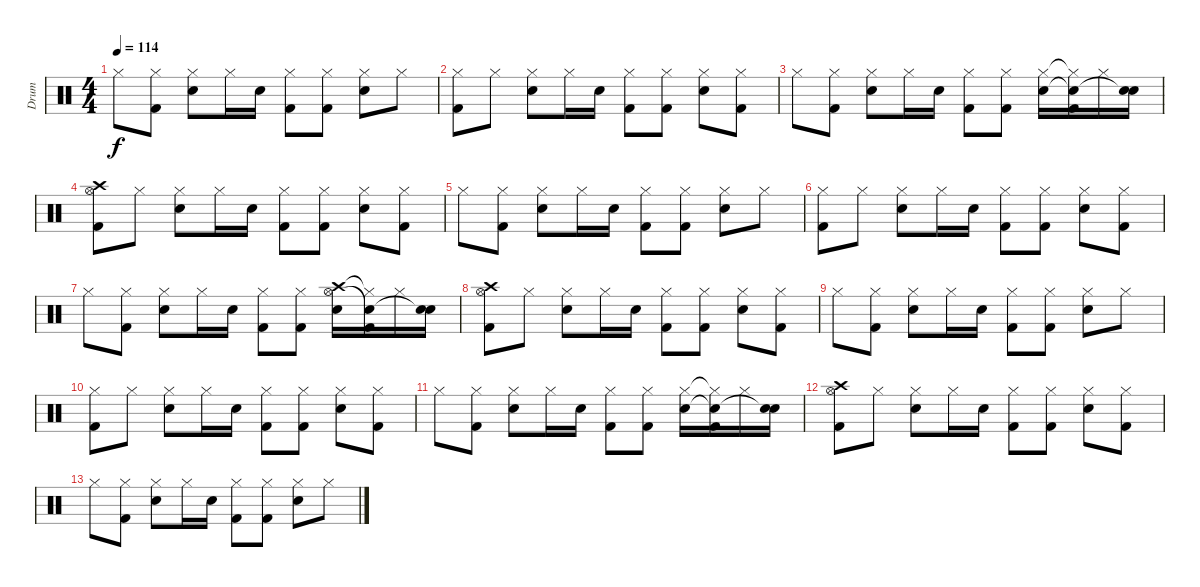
\track ("Drum" "Drum") {instrument percussion}
\staff {score}
\articulation defaults
\ts (4 4)
\tempo 114
\clef neutral
\ks c "Hi-Hat (closed)".8{dy f}
("Hi-Hat (closed)" "Kick (hit) 2").8 ("Hi-Hat (closed)" "Snare (hit) 2").8 "Hi-Hat (closed)".16 "Snare (hit) 2".16 ("Hi-Hat (closed)" "Kick (hit) 2").8 ("Hi-Hat (closed)" "Kick (hit) 2").8 ("Hi-Hat (closed)" "Snare (hit) 2").8 "Hi-Hat (closed)".8 |
("Hi-Hat (closed)" "Kick (hit) 2").8 "Hi-Hat (closed)".8 ("Hi-Hat (closed)" "Snare (hit) 2").8 "Hi-Hat (closed)".16 "Snare (hit) 2".16 ("Hi-Hat (closed)" "Kick (hit) 2").8 ("Hi-Hat (closed)" "Kick (hit) 2").8 ("Hi-Hat (closed)" "Snare (hit) 2").8 ("Hi-Hat (closed)" "Kick (hit) 2").8 |
"Hi-Hat (closed)".8 ("Hi-Hat (closed)" "Kick (hit) 2").8 ("Hi-Hat (closed)" "Snare (hit) 2").8 "Hi-Hat (closed)".16 "Snare (hit) 2".16 ("Hi-Hat (closed)" "Kick (hit) 2").8 ("Hi-Hat (closed)" "Kick (hit) 2").8 ("Hi-Hat (closed)" "Snare (hit) 2").16 ("Hi-Hat (closed)"{t} "Snare (hit)"{t} "Kick (hit) 2").16 "Hi-Hat (closed)".16 ("Snare (hit) 2" "Snare (hit)"{t}).16 |
("Crash high (hit)" "Hi-Hat (open)" "Kick (hit) 2").8 "Hi-Hat (closed)".8 ("Hi-Hat (closed)" "Snare (hit) 2").8 "Hi-Hat (closed)".16 "Snare (hit) 2".16 ("Hi-Hat (closed)" "Kick (hit) 2").8 ("Hi-Hat (closed)" "Kick (hit) 2").8 ("Hi-Hat (closed)" "Snare (hit) 2").8 ("Hi-Hat (closed)" "Kick (hit) 2").8 |
"Hi-Hat (closed)".8 ("Hi-Hat (closed)" "Kick (hit) 2").8 ("Hi-Hat (closed)" "Snare (hit) 2").8 "Hi-Hat (closed)".16 "Snare (hit) 2".16 ("Hi-Hat (closed)" "Kick (hit) 2").8 ("Hi-Hat (closed)" "Kick (hit) 2").8 ("Hi-Hat (closed)" "Snare (hit) 2").8 "Hi-Hat (closed)".8 |
("Hi-Hat (closed)" "Kick (hit) 2").8 "Hi-Hat (closed)".8 ("Hi-Hat (closed)" "Snare (hit) 2").8 "Hi-Hat (closed)".16 "Snare (hit) 2".16 ("Hi-Hat (closed)" "Kick (hit) 2").8 ("Hi-Hat (closed)" "Kick (hit) 2").8 ("Hi-Hat (closed)" "Snare (hit) 2").8 ("Hi-Hat (closed)" "Kick (hit) 2").8 |
"Hi-Hat (closed)".8 ("Hi-Hat (closed)" "Kick (hit) 2").8 ("Hi-Hat (closed)" "Snare (hit) 2").8 "Hi-Hat (closed)".16 "Snare (hit) 2".16 ("Hi-Hat (closed)" "Kick (hit) 2").8 ("Hi-Hat (closed)" "Kick (hit) 2").8 ("Crash high (hit)" "Hi-Hat (open)" "Snare (hit) 2").16 ("Hi-Hat (closed)"{t} "Snare (hit)"{t} "Kick (hit) 2").16 "Hi-Hat (closed)".16 ("Snare (hit) 2" "Snare (hit)"{t}).16 |
("Crash high (hit)" "Hi-Hat (open)" "Kick (hit) 2").8 "Hi-Hat (closed)".8 ("Hi-Hat (closed)" "Snare (hit) 2").8 "Hi-Hat (closed)".16 "Snare (hit) 2".16 ("Hi-Hat (closed)" "Kick (hit) 2").8 ("Hi-Hat (closed)" "Kick (hit) 2").8 ("Hi-Hat (closed)" "Snare (hit) 2").8 ("Hi-Hat (closed)" "Kick (hit) 2").8 |
"Hi-Hat (closed)".8 ("Hi-Hat (closed)" "Kick (hit) 2").8 ("Hi-Hat (closed)" "Snare (hit) 2").8 "Hi-Hat (closed)".16 "Snare (hit) 2".16 ("Hi-Hat (closed)" "Kick (hit) 2").8 ("Hi-Hat (closed)" "Kick (hit) 2").8 ("Hi-Hat (closed)" "Snare (hit) 2").8 "Hi-Hat (closed)".8 |
("Hi-Hat (closed)" "Kick (hit) 2").8 "Hi-Hat (closed)".8 ("Hi-Hat (closed)" "Snare (hit) 2").8 "Hi-Hat (closed)".16 "Snare (hit) 2".16 ("Hi-Hat (closed)" "Kick (hit) 2").8 ("Hi-Hat (closed)" "Kick (hit) 2").8 ("Hi-Hat (closed)" "Snare (hit) 2").8 ("Hi-Hat (closed)" "Kick (hit) 2").8 |
"Hi-Hat (closed)".8 ("Hi-Hat (closed)" "Kick (hit) 2").8 ("Hi-Hat (closed)" "Snare (hit) 2").8 "Hi-Hat (closed)".16 "Snare (hit) 2".16 ("Hi-Hat (closed)" "Kick (hit) 2").8 ("Hi-Hat (closed)" "Kick (hit) 2").8 ("Hi-Hat (closed)" "Snare (hit) 2").16 ("Hi-Hat (closed)"{t} "Snare (hit)"{t} "Kick (hit) 2").16 "Hi-Hat (closed)".16 ("Snare (hit) 2" "Snare (hit)"{t}).16 |
("Crash high (hit)" "Hi-Hat (open)" "Kick (hit) 2").8 "Hi-Hat (closed)".8 ("Hi-Hat (closed)" "Snare (hit) 2").8 "Hi-Hat (closed)".16 "Snare (hit) 2".16 ("Hi-Hat (closed)" "Kick (hit) 2").8 ("Hi-Hat (closed)" "Kick (hit) 2").8 ("Hi-Hat (closed)" "Snare (hit) 2").8 ("Hi-Hat (closed)" "Kick (hit) 2").8 |
"Hi-Hat (closed)".8 ("Hi-Hat (closed)" "Kick (hit) 2").8 ("Hi-Hat (closed)" "Snare (hit) 2").8 "Hi-Hat (closed)".16 "Snare (hit) 2".16 ("Hi-Hat (closed)" "Kick (hit) 2").8 ("Hi-Hat (closed)" "Kick (hit) 2").8 ("Hi-Hat (closed)" "Snare (hit) 2").8 "Hi-Hat (closed)".8
